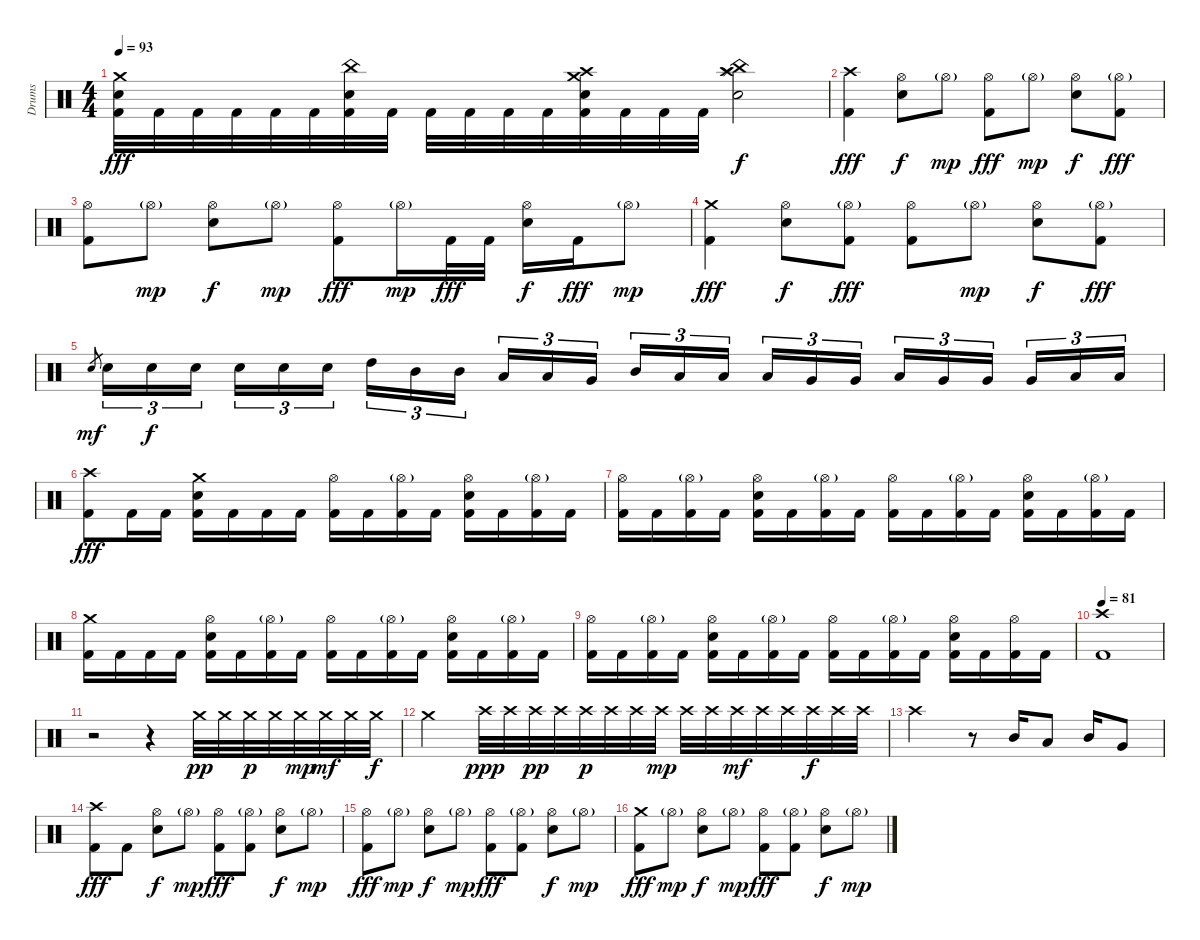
\track ("Drums" "Drums") {instrument percussion}
\staff {score}
\articulation defaults
\ts (4 4)
\tempo 93
\clef neutral
\ks c
("Crash medium (hit)" "Electric Snare (hit)" "Kick (hit) 2").32{dy fff} "Kick (hit) 2".32 "Kick (hit) 2".32 "Kick (hit) 2".32 "Kick (hit) 2".32 "Kick (hit) 2".32 ("China (hit)" "Electric Snare (hit)" "Kick (hit) 2").32 "Kick (hit) 2".32 "Kick (hit) 2".32 "Kick (hit) 2".32 "Kick (hit) 2".32 "Kick (hit) 2".32 ("Crash medium (hit)" "Crash high (hit)" "Electric Snare (hit)" "Kick (hit) 2").32 "Kick (hit) 2".32 "Kick (hit) 2".32 "Kick (hit) 2".32 ("Crash high (hit)" "Splash (hit)" "China (hit)" "Electric Snare (hit)").2{dy f} |
("Crash high (hit)" "Kick (hit) 2").4{dy fff} ("Hi-Hat (open)" "Electric Snare (hit)").8{dy f} "Hi-Hat (open)"{g}.8{dy mp} ("Hi-Hat (open)" "Kick (hit) 2").8{dy fff} "Hi-Hat (open)"{g}.8{dy mp} ("Hi-Hat (open)" "Electric Snare (hit)").8{dy f} ("Hi-Hat (open)"{g} "Kick (hit) 2").8{dy fff} |
("Hi-Hat (open)" "Kick (hit) 2").8 "Hi-Hat (open)"{g}.8{dy mp} ("Hi-Hat (open)" "Electric Snare (hit)").8{dy f} "Hi-Hat (open)"{g}.8{dy mp} ("Hi-Hat (open)" "Kick (hit) 2").8{dy fff} "Hi-Hat (open)"{g}.16{dy mp} "Kick (hit) 2".32{dy fff} "Kick (hit) 2".32 ("Hi-Hat (open)" "Electric Snare (hit)").16{dy f} "Kick (hit) 2".16{dy fff} "Hi-Hat (open)"{g}.8{dy mp} |
("Crash medium (hit)" "Kick (hit) 2").4{dy fff} ("Hi-Hat (open)" "Electric Snare (hit)").8{dy f} ("Hi-Hat (open)"{g} "Kick (hit) 2").8{dy fff} ("Hi-Hat (open)" "Kick (hit) 2").8 "Hi-Hat (open)"{g}.8{dy mp} ("Hi-Hat (open)" "Electric Snare (hit)").8{dy f} ("Hi-Hat (open)"{g} "Kick (hit) 2").8{dy fff} |
"Electric Snare (hit)".8{gr dy mf} "Electric Snare (hit)".16{tu (3 2)} "Electric Snare (hit)".16{tu (3 2) dy f} "Electric Snare (hit)".16{tu (3 2)} "Electric Snare (hit)".16{tu (3 2)} "Electric Snare (hit)".16{tu (3 2)} "Electric Snare (hit)".16{tu (3 2)} "High Tom (hit)".16{tu (3 2)} "Mid Tom (hit)".16{tu (3 2)} "Mid Tom (hit)".16{tu (3 2)} "Low Tom (hit)".16{tu (3 2)} "Low Tom (hit)".16{tu (3 2)} "Very Low Tom (hit)".16{tu (3 2)} "Mid Tom (hit)".16{tu (3 2)} "Low Tom (hit)".16{tu (3 2)} "Low Tom (hit)".16{tu (3 2)} "Low Tom (hit)".16{tu (3 2)} "Very Low Tom (hit)".16{tu (3 2)} "Very Low Tom (hit)".16{tu (3 2)} "Low Tom (hit)".16{tu (3 2)} "Very Low Tom (hit)".16{tu (3 2)} "Very Low Tom (hit)".16{tu (3 2)} "Very Low Tom (hit)".16{tu (3 2)} "Low Floor Tom (hit)".16{tu (3 2)} "Low Floor Tom (hit)".16{tu (3 2)} |
("Crash high (hit)" "Kick (hit) 2").8{dy fff} "Kick (hit) 2".16 "Kick (hit) 2".16 ("Crash medium (hit)" "Electric Snare (hit)" "Kick (hit) 2").16 "Kick (hit) 2".16 "Kick (hit) 2".16 "Kick (hit) 2".16 ("Hi-Hat (open)" "Kick (hit) 2").16 "Kick (hit) 2".16 ("Hi-Hat (open)"{g} "Kick (hit) 2").16 "Kick (hit) 2".16 ("Hi-Hat (open)" "Electric Snare (hit)" "Kick (hit) 2").16 "Kick (hit) 2".16 ("Hi-Hat (open)"{g} "Kick (hit) 2").16 "Kick (hit) 2".16 |
("Hi-Hat (open)" "Kick (hit) 2").16 "Kick (hit) 2".16 ("Hi-Hat (open)"{g} "Kick (hit) 2").16 "Kick (hit) 2".16 ("Hi-Hat (open)" "Electric Snare (hit)" "Kick (hit) 2").16 "Kick (hit) 2".16 ("Hi-Hat (open)"{g} "Kick (hit) 2").16 "Kick (hit) 2".16 ("Hi-Hat (open)" "Kick (hit) 2").16 "Kick (hit) 2".16 ("Hi-Hat (open)"{g} "Kick (hit) 2").16 "Kick (hit) 2".16 ("Hi-Hat (open)" "Electric Snare (hit)" "Kick (hit) 2").16 "Kick (hit) 2".16 ("Hi-Hat (open)"{g} "Kick (hit) 2").16 "Kick (hit) 2".16 |
("Crash medium (hit)" "Kick (hit) 2").16 "Kick (hit) 2".16 "Kick (hit) 2".16 "Kick (hit) 2".16 ("Hi-Hat (open)" "Electric Snare (hit)" "Kick (hit) 2").16 "Kick (hit) 2".16 ("Hi-Hat (open)"{g} "Kick (hit) 2").16 "Kick (hit) 2".16 ("Hi-Hat (open)" "Kick (hit) 2").16 "Kick (hit) 2".16 ("Hi-Hat (open)"{g} "Kick (hit) 2").16 "Kick (hit) 2".16 ("Hi-Hat (open)" "Electric Snare (hit)" "Kick (hit) 2").16 "Kick (hit) 2".16 ("Hi-Hat (open)"{g} "Kick (hit) 2").16 "Kick (hit) 2".16 |
("Hi-Hat (open)" "Kick (hit) 2").16 "Kick (hit) 2".16 ("Hi-Hat (open)"{g} "Kick (hit) 2").16 "Kick (hit) 2".16 ("Hi-Hat (open)" "Electric Snare (hit)" "Kick (hit) 2").16 "Kick (hit) 2".16 ("Hi-Hat (open)"{g} "Kick (hit) 2").16 "Kick (hit) 2".16 ("Hi-Hat (open)" "Kick (hit) 2").16 "Kick (hit) 2".16 ("Hi-Hat (open)"{g} "Kick (hit) 2").16 "Kick (hit) 2".16 ("Hi-Hat (open)" "Electric Snare (hit)" "Kick (hit) 2").16 "Kick (hit) 2".16 ("Hi-Hat (open)" "Kick (hit) 2").16 "Kick (hit) 2".16 |
\tempo 81
("Crash high (hit)" "Kick (hit) 2").1 |
r.2 r.4 "Crash medium (hit)".32{dy pp} "Crash medium (hit)".32 "Crash medium (hit)".32{dy p} "Crash medium (hit)".32 "Crash medium (hit)".32{dy mp} "Crash medium (hit)".32{dy mf} "Crash medium (hit)".32 "Crash medium (hit)".32{dy f} |
"Crash medium (hit)".2 "Crash high (hit)".32{dy ppp} "Crash high (hit)".32 "Crash high (hit)".32{dy pp} "Crash high (hit)".32 "Crash high (hit)".32{dy p} "Crash high (hit)".32 "Crash high (hit)".32 "Crash high (hit)".32{dy mp} "Crash high (hit)".32 "Crash high (hit)".32 "Crash high (hit)".32{dy mf} "Crash high (hit)".32 "Crash high (hit)".32 "Crash high (hit)".32{dy f} "Crash high (hit)".32 "Crash high (hit)".32 |
"Crash high (hit)".2 r.8 "Mid Tom (hit)".16 "Low Tom (hit)".8 "Mid Tom (hit)".16 "Very Low Tom (hit)".8 |
("Crash high (hit)" "Kick (hit) 2").8{dy fff} "Kick (hit) 2".8 ("Hi-Hat (open)" "Electric Snare (hit)").8{dy f} "Hi-Hat (open)"{g}.8{dy mp} ("Hi-Hat (open)" "Kick (hit) 2").8{dy fff} ("Hi-Hat (open)"{g} "Kick (hit) 2").8 ("Hi-Hat (open)" "Electric Snare (hit)").8{dy f} "Hi-Hat (open)"{g}.8{dy mp} |
("Hi-Hat (open)" "Kick (hit) 2").8{dy fff} "Hi-Hat (open)"{g}.8{dy mp} ("Hi-Hat (open)" "Electric Snare (hit)").8{dy f} "Hi-Hat (open)"{g}.8{dy mp} ("Hi-Hat (open)" "Kick (hit) 2").8{dy fff} ("Hi-Hat (open)"{g} "Kick (hit) 2").8 ("Hi-Hat (open)" "Electric Snare (hit)").8{dy f} "Hi-Hat (open)"{g}.8{dy mp} |
("Crash medium (hit)" "Kick (hit) 2").8{dy fff} "Hi-Hat (open)"{g}.8{dy mp} ("Hi-Hat (open)" "Electric Snare (hit)").8{dy f} "Hi-Hat (open)"{g}.8{dy mp} ("Hi-Hat (open)" "Kick (hit) 2").8{dy fff} ("Hi-Hat (open)"{g} "Kick (hit) 2").8 ("Hi-Hat (open)" "Electric Snare (hit)").8{dy f} "Hi-Hat (open)"{g}.8{dy mp}
